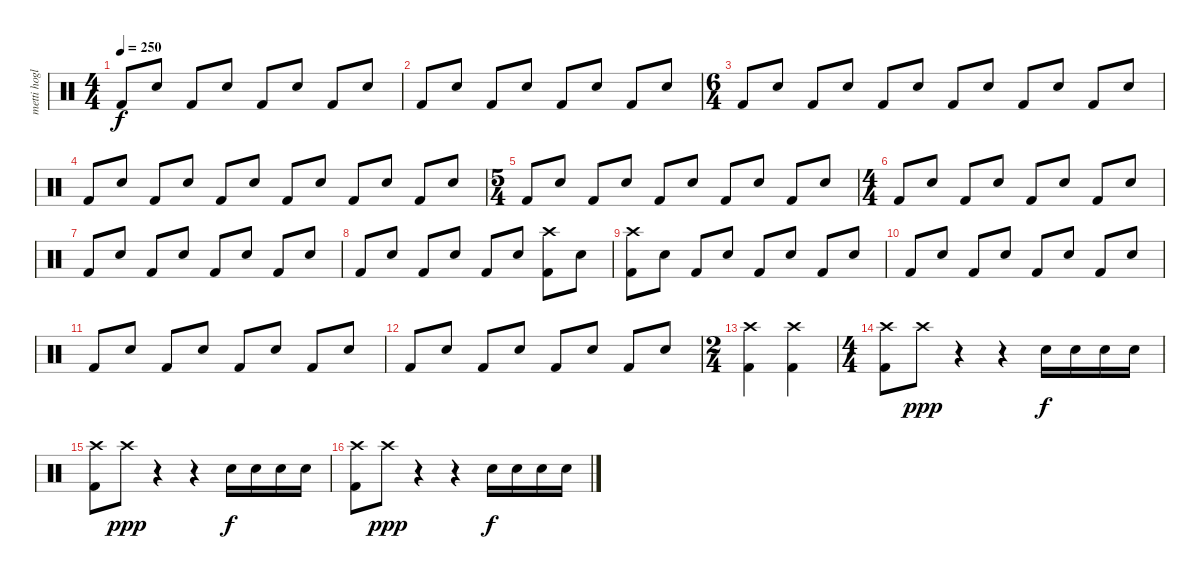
\track ("metti hoglan" "metti hogl") {instrument percussion}
\staff {score}
\articulation defaults
\ts (4 4)
\tempo 250
\clef neutral
\ks c "Kick (hit) 2".8{dy f} "Snare (hit) 2".8 "Kick (hit) 2".8 "Snare (hit) 2".8 "Kick (hit) 2".8 "Snare (hit) 2".8 "Kick (hit) 2".8 "Snare (hit) 2".8
|
"Kick (hit) 2".8 "Snare (hit) 2".8 "Kick (hit) 2".8 "Snare (hit) 2".8 "Kick (hit) 2".8 "Snare (hit) 2".8 "Kick (hit) 2".8 "Snare (hit) 2".8 |
\ts (6 4)
"Kick (hit) 2".8 "Snare (hit) 2".8 "Kick (hit) 2".8 "Snare (hit) 2".8 "Kick (hit) 2".8 "Snare (hit) 2".8 "Kick (hit) 2".8 "Snare (hit) 2".8 "Kick (hit) 2".8 "Snare (hit) 2".8 "Kick (hit) 2".8 "Snare (hit) 2".8 |
"Kick (hit) 2".8 "Snare (hit) 2".8 "Kick (hit) 2".8 "Snare (hit) 2".8 "Kick (hit) 2".8 "Snare (hit) 2".8 "Kick (hit) 2".8 "Snare (hit) 2".8 "Kick (hit) 2".8 "Snare (hit) 2".8 "Kick (hit) 2".8 "Snare (hit) 2".8 |
\ts (5 4)
"Kick (hit) 2".8 "Snare (hit) 2".8 "Kick (hit) 2".8 "Snare (hit) 2".8 "Kick (hit) 2".8 "Snare (hit) 2".8 "Kick (hit) 2".8 "Snare (hit) 2".8 "Kick (hit) 2".8 "Snare (hit) 2".8 |
\ts (4 4)
"Kick (hit) 2".8 "Snare (hit) 2".8 "Kick (hit) 2".8 "Snare (hit) 2".8 "Kick (hit) 2".8 "Snare (hit) 2".8 "Kick (hit) 2".8 "Snare (hit) 2".8 |
"Kick (hit) 2".8 "Snare (hit) 2".8 "Kick (hit) 2".8 "Snare (hit) 2".8 "Kick (hit) 2".8 "Snare (hit) 2".8 "Kick (hit) 2".8 "Snare (hit) 2".8 |
"Kick (hit) 2".8 "Snare (hit) 2".8 "Kick (hit) 2".8 "Snare (hit) 2".8 "Kick (hit) 2".8 "Snare (hit) 2".8 ("Crash high (hit)" "Kick (hit) 2").8 "Snare (hit) 2".8 |
("Crash high (hit)" "Kick (hit) 2").8 "Snare (hit) 2".8 "Kick (hit) 2".8 "Snare (hit) 2".8 "Kick (hit) 2".8 "Snare (hit) 2".8 "Kick (hit) 2".8 "Snare (hit) 2".8 |
"Kick (hit) 2".8 "Snare (hit) 2".8 "Kick (hit) 2".8 "Snare (hit) 2".8 "Kick (hit) 2".8 "Snare (hit) 2".8 "Kick (hit) 2".8 "Snare (hit) 2".8 |
"Kick (hit) 2".8 "Snare (hit) 2".8 "Kick (hit) 2".8 "Snare (hit) 2".8 "Kick (hit) 2".8 "Snare (hit) 2".8 "Kick (hit) 2".8 "Snare (hit) 2".8 |
"Kick (hit) 2".8 "Snare (hit) 2".8 "Kick (hit) 2".8 "Snare (hit) 2".8 "Kick (hit) 2".8 "Snare (hit) 2".8 "Kick (hit) 2".8 "Snare (hit) 2".8 |
\ts (2 4)
("Crash high (hit)" "Kick (hit) 2").4 ("Crash high (hit)" "Kick (hit) 2").4 |
\ts (4 4)
("Crash high (hit)" "Kick (hit) 2").8 "Crash high (hit)".8{dy ppp} r.4 r.4 "Snare (hit) 2".16{dy f} "Snare (hit) 2".16 "Snare (hit) 2".16 "Snare (hit) 2".16 |
("Crash high (hit)" "Kick (hit) 2").8 "Crash high (hit)".8{dy ppp} r.4 r.4 "Snare (hit) 2".16{dy f} "Snare (hit) 2".16 "Snare (hit) 2".16 "Snare (hit) 2".16 |
("Crash high (hit)" "Kick (hit) 2").8 "Crash high (hit)".8{dy ppp} r.4 r.4 "Snare (hit) 2".16{dy f} "Snare (hit) 2".16 "Snare (hit) 2".16 "Snare (hit) 2".16
